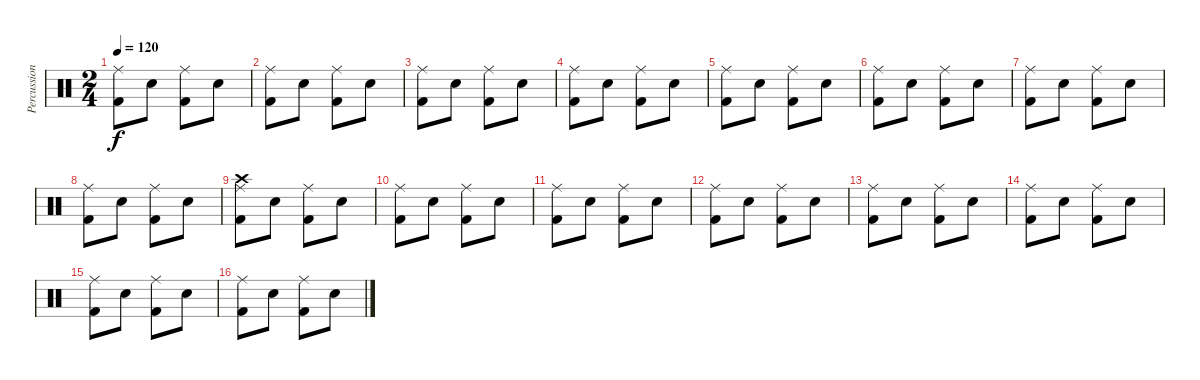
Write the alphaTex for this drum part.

\track ("Percussion" "Percussion") {instrument percussion}
\staff {score}
\articulation defaults
\ts (2 4)
\tempo 120
\clef neutral
\ks c
("Ride (middle)" "Kick (hit) 2").8{dy f} "Snare (hit) 2".8 ("Ride (middle)" "Kick (hit) 2").8 "Snare (hit) 2".8 |
("Ride (middle)" "Kick (hit) 2").8 "Snare (hit) 2".8 ("Ride (middle)" "Kick (hit) 2").8 "Snare (hit) 2".8 |
("Ride (middle)" "Kick (hit) 2").8 "Snare (hit) 2".8 ("Ride (middle)" "Kick (hit) 2").8 "Snare (hit) 2".8 |
("Ride (middle)" "Kick (hit) 2").8 "Snare (hit) 2".8 ("Ride (middle)" "Kick (hit) 2").8 "Snare (hit) 2".8 |
("Ride (middle)" "Kick (hit) 2").8 "Snare (hit) 2".8 ("Ride (middle)" "Kick (hit) 2").8 "Snare (hit) 2".8 |
("Ride (middle)" "Kick (hit) 2").8 "Snare (hit) 2".8 ("Ride (middle)" "Kick (hit) 2").8 "Snare (hit) 2".8 |
("Ride (middle)" "Kick (hit) 2").8 "Snare (hit) 2".8 ("Ride (middle)" "Kick (hit) 2").8 "Snare (hit) 2".8 |
("Ride (middle)" "Kick (hit) 2").8 "Snare (hit) 2".8 ("Ride (middle)" "Kick (hit) 2").8 "Snare (hit) 2".8 |
("Crash high (hit)" "Ride (middle)" "Kick (hit) 2").8 "Snare (hit) 2".8 ("Ride (middle)" "Kick (hit) 2").8 "Snare (hit) 2".8 |
("Ride (middle)" "Kick (hit) 2").8 "Snare (hit) 2".8 ("Ride (middle)" "Kick (hit) 2").8 "Snare (hit) 2".8 |
("Ride (middle)" "Kick (hit) 2").8 "Snare (hit) 2".8 ("Ride (middle)" "Kick (hit) 2").8 "Snare (hit) 2".8 |
("Ride (middle)" "Kick (hit) 2").8 "Snare (hit) 2".8 ("Ride (middle)" "Kick (hit) 2").8 "Snare (hit) 2".8 |
("Ride (middle)" "Kick (hit) 2").8 "Snare (hit) 2".8 ("Ride (middle)" "Kick (hit) 2").8 "Snare (hit) 2".8 |
("Ride (middle)" "Kick (hit) 2").8 "Snare (hit) 2".8 ("Ride (middle)" "Kick (hit) 2").8 "Snare (hit) 2".8 |
("Ride (middle)" "Kick (hit) 2").8 "Snare (hit) 2".8 ("Ride (middle)" "Kick (hit) 2").8 "Snare (hit) 2".8 |
("Ride (middle)" "Kick (hit) 2").8 "Snare (hit) 2".8 ("Ride (middle)" "Kick (hit) 2").8 "Snare (hit) 2".8
